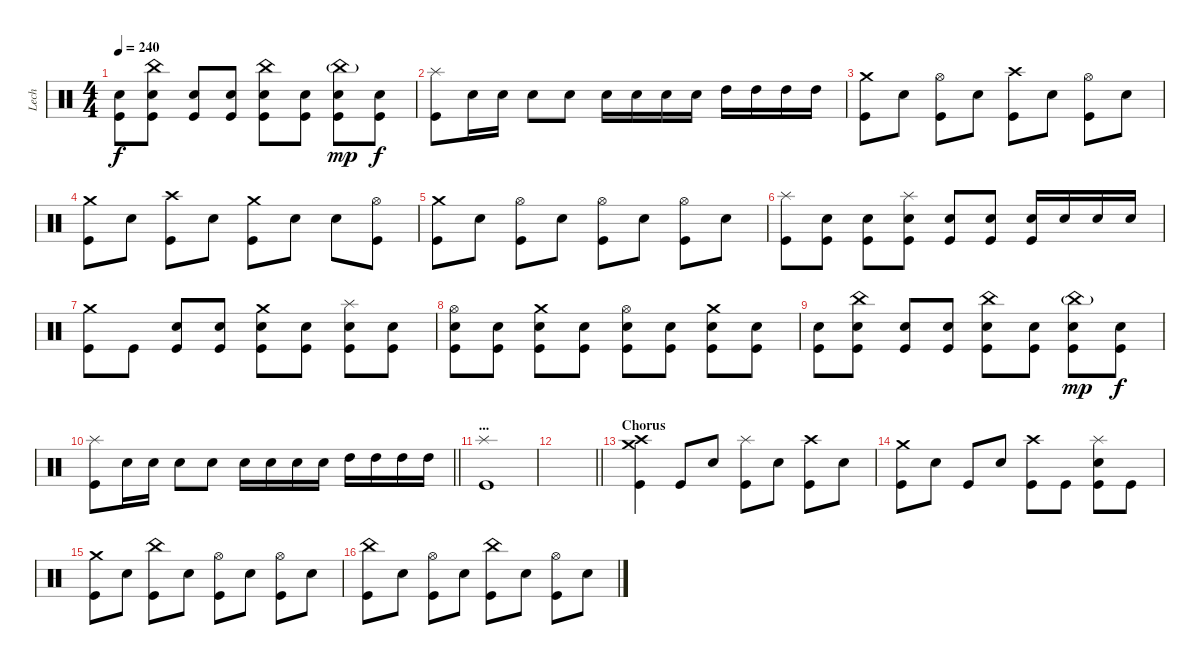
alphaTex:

\track ("Lech" "Lech") {instrument percussion}
\staff {score}
\articulation defaults
\ts (4 4)
\tempo 240
\clef neutral
\ks c
("Snare (hit) 2" "Kick (hit)").8{dy f} ("China (hit)" "Snare (hit) 2" "Kick (hit)").8 ("Snare (hit) 2" "Kick (hit)").8 ("Snare (hit) 2" "Kick (hit)").8 ("China (hit)" "Snare (hit) 2" "Kick (hit)").8 ("Snare (hit) 2" "Kick (hit)").8 ("China (hit)"{g} "Snare (hit) 2" "Kick (hit)").8{dy mp} ("Snare (hit) 2" "Kick (hit)").8{dy f} |
("Splash (hit)" "Kick (hit)").8 "Snare (hit) 2".16 "Snare (hit) 2".16 "Snare (hit) 2".8 "Snare (hit) 2".8 "Snare (hit) 2".16 "Snare (hit) 2".16 "Snare (hit) 2".16 "Snare (hit) 2".16 "High Tom (hit)".16 "High Tom (hit)".16 "High Tom (hit)".16 "High Tom (hit)".16 |
("Crash medium (hit)" "Kick (hit)").8 "Snare (hit) 2".8 ("Hi-Hat (open)" "Kick (hit)").8 "Snare (hit) 2".8 ("Crash high (hit)" "Kick (hit)").8 "Snare (hit) 2".8 ("Hi-Hat (open)" "Kick (hit)").8 "Snare (hit) 2".8 |
("Crash medium (hit)" "Kick (hit)").8 "Snare (hit) 2".8 ("Crash high (hit)" "Kick (hit)").8 "Snare (hit) 2".8 ("Crash medium (hit)" "Kick (hit)").8 "Snare (hit) 2".8 "Electric Snare (hit)".8 ("Hi-Hat (open)" "Kick (hit)").8 |
("Crash medium (hit)" "Kick (hit)").8 "Snare (hit) 2".8 ("Hi-Hat (open)" "Kick (hit)").8 "Snare (hit) 2".8 ("Hi-Hat (open)" "Kick (hit)").8 "Snare (hit) 2".8 ("Hi-Hat (open)" "Kick (hit)").8 "Snare (hit) 2".8 |
("Splash (hit)" "Kick (hit)").8 ("Snare (hit) 2" "Kick (hit)").8 ("Snare (hit) 2" "Kick (hit)").8 ("Splash (hit)" "Snare (hit) 2" "Kick (hit)").8 ("Snare (hit) 2" "Kick (hit)").8 ("Snare (hit) 2" "Kick (hit)").8 ("Snare (hit) 2" "Kick (hit)").16 "Snare (hit) 2".16 "Snare (hit) 2".16 "Snare (hit) 2".16 |
("Crash medium (hit)" "Kick (hit)").8 "Kick (hit)".8 ("Snare (hit) 2" "Kick (hit)").8 ("Snare (hit) 2" "Kick (hit)").8 ("Crash medium (hit)" "Snare (hit) 2" "Kick (hit)").8 ("Snare (hit) 2" "Kick (hit)").8 ("Splash (hit)" "Snare (hit) 2" "Kick (hit)").8 ("Snare (hit) 2" "Kick (hit)").8 |
("Hi-Hat (open)" "Snare (hit) 2" "Kick (hit)").8 ("Snare (hit) 2" "Kick (hit)").8 ("Crash medium (hit)" "Snare (hit) 2" "Kick (hit)").8 ("Snare (hit) 2" "Kick (hit)").8 ("Hi-Hat (open)" "Snare (hit) 2" "Kick (hit)").8 ("Snare (hit) 2" "Kick (hit)").8 ("Crash medium (hit)" "Snare (hit) 2" "Kick (hit)").8 ("Snare (hit) 2" "Kick (hit)").8 |
("Snare (hit) 2" "Kick (hit)").8 ("China (hit)" "Snare (hit) 2" "Kick (hit)").8 ("Snare (hit) 2" "Kick (hit)").8 ("Snare (hit) 2" "Kick (hit)").8 ("China (hit)" "Snare (hit) 2" "Kick (hit)").8 ("Snare (hit) 2" "Kick (hit)").8 ("China (hit)"{g} "Snare (hit) 2" "Kick (hit)").8{dy mp} ("Snare (hit) 2" "Kick (hit)").8{dy f} |
\barLineRight lightlight
("Splash (hit)" "Kick (hit)").8 "Snare (hit) 2".16 "Snare (hit) 2".16 "Snare (hit) 2".8 "Snare (hit) 2".8 "Snare (hit) 2".16 "Snare (hit) 2".16 "Snare (hit) 2".16 "Snare (hit) 2".16 "High Tom (hit)".16 "High Tom (hit)".16 "High Tom (hit)".16 "High Tom (hit)".16 |
\section ("" "...")
("Splash (hit)" "Kick (hit)").1 |
\barLineRight lightlight
|
\section ("" "Chorus")
("Crash high (hit)" "Crash medium (hit)" "Kick (hit)").4 "Kick (hit)".8 "Snare (hit) 2".8 ("Splash (hit)" "Kick (hit)").8 "Snare (hit) 2".8 ("Crash high (hit)" "Kick (hit)").8 "Snare (hit) 2".8 |
("Crash medium (hit)" "Kick (hit)").8 "Snare (hit) 2".8 "Kick (hit)".8 "Snare (hit) 2".8 ("Crash high (hit)" "Kick (hit)").8 "Kick (hit)".8 ("Splash (hit)" "Snare (hit) 2" "Kick (hit)").8 "Kick (hit)".8 |
("Crash medium (hit)" "Kick (hit)").8 "Snare (hit) 2".8 ("China (hit)" "Kick (hit)").8 "Snare (hit) 2".8 ("Hi-Hat (open)" "Kick (hit)").8 "Snare (hit) 2".8 ("Hi-Hat (open)" "Kick (hit)").8 "Snare (hit) 2".8 |
("China (hit)" "Kick (hit)").8 "Snare (hit) 2".8 ("Hi-Hat (open)" "Kick (hit)").8 "Snare (hit) 2".8 ("China (hit)" "Kick (hit)").8 "Snare (hit) 2".8 ("Hi-Hat (open)" "Kick (hit)").8 "Snare (hit) 2".8
